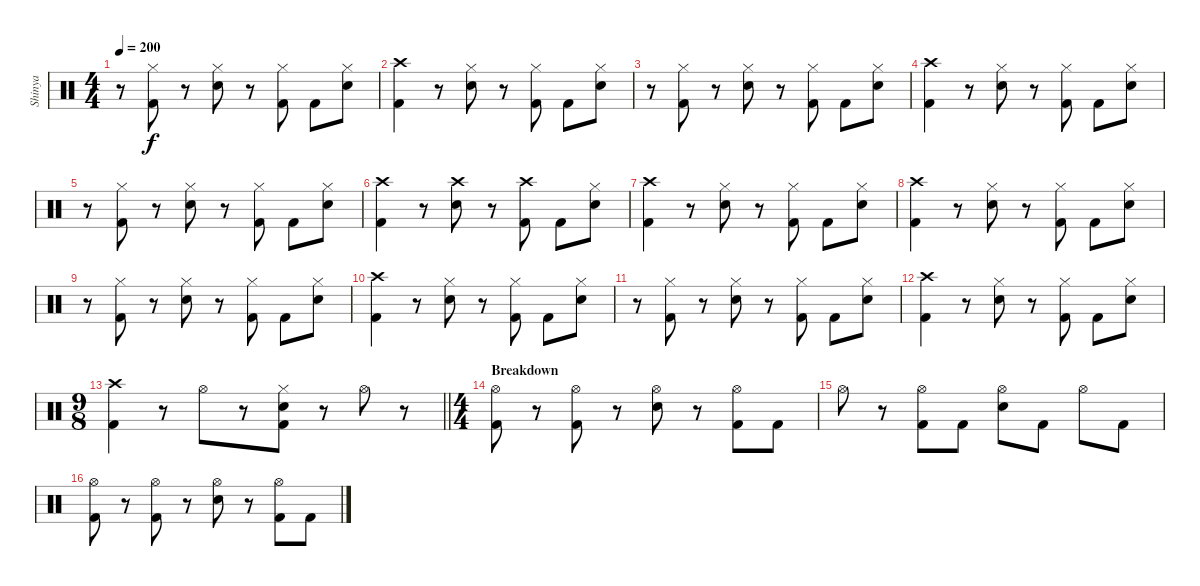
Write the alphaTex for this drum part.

\track ("Shinya" "Shinya") {instrument percussion}
\staff {score}
\articulation defaults
\ts (4 4)
\tempo 200
\clef neutral
\ks c
r.8{dy f} ("Kick (hit) 2" "Hi-Hat (closed)").8 r.8 ("Electric Snare (hit)" "Hi-Hat (closed)").8 r.8 ("Kick (hit) 2" "Hi-Hat (closed)").8 "Kick (hit) 2".8 ("Electric Snare (hit)" "Hi-Hat (closed)").8 |
("Kick (hit) 2" "Crash high (hit)").4 r.8 ("Electric Snare (hit)" "Hi-Hat (closed)").8 r.8 ("Kick (hit) 2" "Hi-Hat (closed)").8 "Kick (hit) 2".8 ("Electric Snare (hit)" "Hi-Hat (closed)").8 |
r.8 ("Kick (hit) 2" "Hi-Hat (closed)").8 r.8 ("Electric Snare (hit)" "Hi-Hat (closed)").8 r.8 ("Kick (hit) 2" "Hi-Hat (closed)").8 "Kick (hit) 2".8 ("Electric Snare (hit)" "Hi-Hat (closed)").8 |
("Kick (hit) 2" "Crash high (hit)").4 r.8 ("Electric Snare (hit)" "Hi-Hat (closed)").8 r.8 ("Kick (hit) 2" "Hi-Hat (closed)").8 "Kick (hit) 2".8 ("Electric Snare (hit)" "Hi-Hat (closed)").8 |
r.8 ("Kick (hit) 2" "Hi-Hat (closed)").8 r.8 ("Electric Snare (hit)" "Hi-Hat (closed)").8 r.8 ("Kick (hit) 2" "Hi-Hat (closed)").8 "Kick (hit) 2".8 ("Electric Snare (hit)" "Hi-Hat (closed)").8 |
("Kick (hit) 2" "Crash high (hit)").4 r.8 ("Electric Snare (hit)" "Crash high (hit)").8 r.8 ("Kick (hit) 2" "Crash high (hit)").8 "Kick (hit) 2".8 ("Electric Snare (hit)" "Hi-Hat (closed)").8 |
("Kick (hit) 2" "Crash high (hit)").4 r.8 ("Electric Snare (hit)" "Hi-Hat (closed)").8 r.8 ("Kick (hit) 2" "Hi-Hat (closed)").8 "Kick (hit) 2".8 ("Electric Snare (hit)" "Hi-Hat (closed)").8 |
("Kick (hit) 2" "Crash high (hit)").4 r.8 ("Electric Snare (hit)" "Hi-Hat (closed)").8 r.8 ("Kick (hit) 2" "Hi-Hat (closed)").8 "Kick (hit) 2".8 ("Electric Snare (hit)" "Hi-Hat (closed)").8 |
r.8 ("Kick (hit) 2" "Hi-Hat (closed)").8 r.8 ("Electric Snare (hit)" "Hi-Hat (closed)").8 r.8 ("Kick (hit) 2" "Hi-Hat (closed)").8 "Kick (hit) 2".8 ("Electric Snare (hit)" "Hi-Hat (closed)").8 |
("Kick (hit) 2" "Crash high (hit)").4 r.8 ("Electric Snare (hit)" "Hi-Hat (closed)").8 r.8 ("Kick (hit) 2" "Hi-Hat (closed)").8 "Kick (hit) 2".8 ("Electric Snare (hit)" "Hi-Hat (closed)").8 |
r.8 ("Kick (hit) 2" "Hi-Hat (closed)").8 r.8 ("Electric Snare (hit)" "Hi-Hat (closed)").8 r.8 ("Kick (hit) 2" "Hi-Hat (closed)").8 "Kick (hit) 2".8 ("Electric Snare (hit)" "Hi-Hat (closed)").8 |
("Kick (hit) 2" "Crash high (hit)").4 r.8 ("Electric Snare (hit)" "Hi-Hat (closed)").8 r.8 ("Kick (hit) 2" "Hi-Hat (closed)").8 "Kick (hit) 2".8 ("Electric Snare (hit)" "Hi-Hat (closed)").8 |
\ts (9 8)
\barLineRight lightlight
("Kick (hit) 2" "Crash high (hit)").4 r.8 "Hi-Hat (open)".8 r.8 ("Electric Snare (hit)" "Kick (hit) 2" "Hi-Hat (closed)").8 r.8 "Hi-Hat (open)".8 r.8 |
\ts (4 4)
\section ("" "Breakdown")
("Kick (hit) 2" "Hi-Hat (open)").8 r.8 ("Kick (hit) 2" "Hi-Hat (open)").8 r.8 ("Electric Snare (hit)" "Hi-Hat (open)").8 r.8 ("Kick (hit) 2" "Hi-Hat (open)").8 "Kick (hit) 2".8 |
"Hi-Hat (open)".8 r.8 ("Kick (hit) 2" "Hi-Hat (open)").8 "Kick (hit) 2".8 ("Electric Snare (hit)" "Hi-Hat (open)").8 "Kick (hit) 2".8 "Hi-Hat (open)".8 "Kick (hit) 2".8 |
("Kick (hit) 2" "Hi-Hat (open)").8 r.8 ("Kick (hit) 2" "Hi-Hat (open)").8 r.8 ("Electric Snare (hit)" "Hi-Hat (open)").8 r.8 ("Kick (hit) 2" "Hi-Hat (open)").8 "Kick (hit) 2".8
